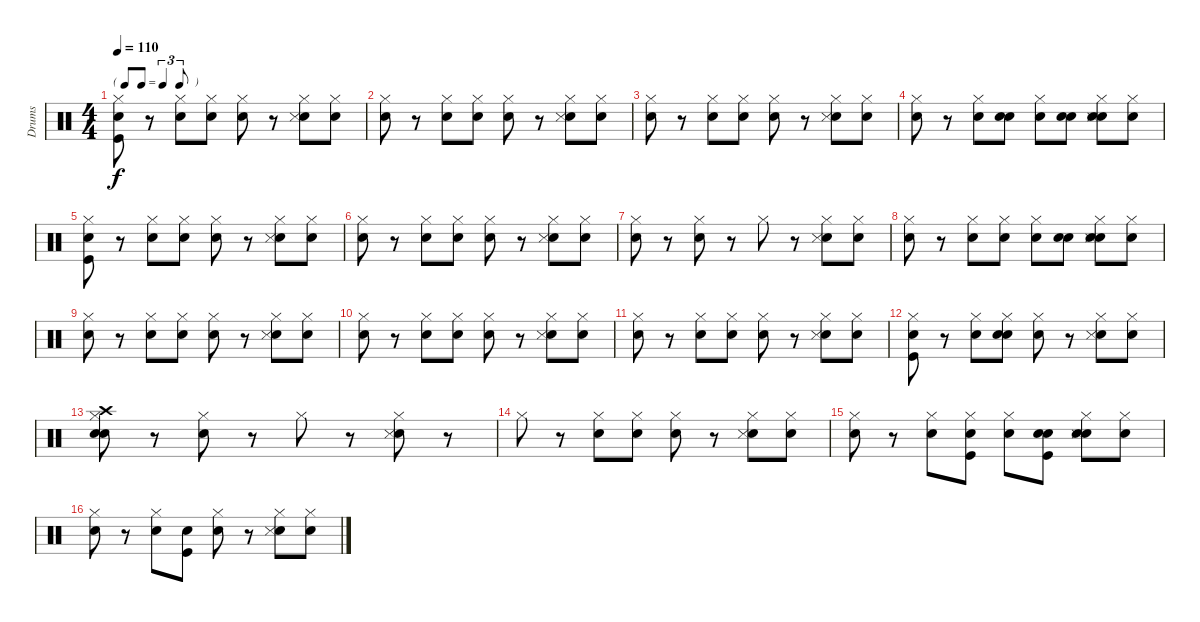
\track ("Drums " "Drums ") {instrument percussion}
\staff {score}
\articulation defaults
\ts (4 4)
\tf triplet8th
\tempo 110
\clef neutral
\ks c
("Snare (hit)" "Kick (hit)" "Hi-Hat (closed)").8{dy f} r.8 ("Snare (hit) 2" "Hi-Hat (closed)").8 ("Snare (hit)" "Hi-Hat (closed)").8 ("Snare (hit)" "Hi-Hat (closed)").8 r.8 ("Snare (hit) 2" "Hi-Hat (closed)" "Snare (side stick) 3").8 ("Snare (hit)" "Hi-Hat (closed)").8 |
("Snare (hit)" "Hi-Hat (closed)").8 r.8 ("Snare (hit) 2" "Hi-Hat (closed)").8 ("Snare (hit)" "Hi-Hat (closed)").8 ("Snare (hit)" "Hi-Hat (closed)").8 r.8 ("Snare (hit) 2" "Hi-Hat (closed)" "Snare (side stick) 3").8 ("Snare (hit)" "Hi-Hat (closed)").8 |
("Snare (hit)" "Hi-Hat (closed)").8 r.8 ("Snare (hit) 2" "Hi-Hat (closed)").8 ("Snare (hit)" "Hi-Hat (closed)").8 ("Snare (hit)" "Hi-Hat (closed)").8 r.8 ("Snare (hit) 2" "Hi-Hat (closed)" "Snare (side stick) 3").8 ("Snare (hit)" "Hi-Hat (closed)").8 |
("Snare (hit)" "Hi-Hat (closed)").8 r.8 ("Snare (hit) 2" "Hi-Hat (closed)").8 ("Snare (hit)" "Snare (hit) 2").8 ("Snare (hit)" "Hi-Hat (closed)").8 ("Snare (hit)" "Snare (hit) 2").8 ("Snare (hit)" "Snare (hit) 2" "Hi-Hat (closed)" "Snare (side stick) 3").8 ("Snare (hit)" "Hi-Hat (closed)").8 |
("Snare (hit)" "Kick (hit)" "Hi-Hat (closed)").8 r.8 ("Snare (hit) 2" "Hi-Hat (closed)").8 ("Snare (hit)" "Hi-Hat (closed)").8 ("Snare (hit)" "Hi-Hat (closed)").8 r.8 ("Snare (hit) 2" "Hi-Hat (closed)" "Snare (side stick) 3").8 ("Snare (hit)" "Hi-Hat (closed)").8 |
("Snare (hit)" "Hi-Hat (closed)").8 r.8 ("Snare (hit) 2" "Hi-Hat (closed)").8 ("Snare (hit)" "Hi-Hat (closed)").8 ("Snare (hit)" "Hi-Hat (closed)").8 r.8 ("Snare (hit) 2" "Hi-Hat (closed)" "Snare (side stick) 3").8 ("Snare (hit)" "Hi-Hat (closed)").8 |
("Snare (hit)" "Hi-Hat (closed)").8 r.8 ("Snare (hit) 2" "Hi-Hat (closed)").8 r.8 "Hi-Hat (closed)".8 r.8 ("Snare (hit) 2" "Hi-Hat (closed)" "Snare (side stick) 3").8 ("Snare (hit)" "Hi-Hat (closed)").8 |
("Snare (hit)" "Hi-Hat (closed)").8 r.8 ("Snare (hit) 2" "Hi-Hat (closed)").8 ("Snare (hit)" "Hi-Hat (closed)").8 ("Snare (hit)" "Hi-Hat (closed)").8 ("Snare (hit)" "Snare (hit) 2").8 ("Snare (hit)" "Snare (hit) 2" "Hi-Hat (closed)" "Snare (side stick) 3").8 ("Snare (hit)" "Hi-Hat (closed)").8 |
("Snare (hit)" "Hi-Hat (closed)").8 r.8 ("Snare (hit) 2" "Hi-Hat (closed)").8 ("Snare (hit)" "Hi-Hat (closed)").8 ("Snare (hit)" "Hi-Hat (closed)").8 r.8 ("Snare (hit) 2" "Hi-Hat (closed)" "Snare (side stick) 3").8 ("Snare (hit)" "Hi-Hat (closed)").8 |
("Snare (hit)" "Hi-Hat (closed)").8 r.8 ("Snare (hit) 2" "Hi-Hat (closed)").8 ("Snare (hit)" "Hi-Hat (closed)").8 ("Snare (hit)" "Hi-Hat (closed)").8 r.8 ("Snare (hit) 2" "Hi-Hat (closed)" "Snare (side stick) 3").8 ("Snare (hit)" "Hi-Hat (closed)").8 |
("Snare (hit)" "Hi-Hat (closed)").8 r.8 ("Snare (hit) 2" "Hi-Hat (closed)").8 ("Snare (hit)" "Hi-Hat (closed)").8 ("Snare (hit)" "Hi-Hat (closed)").8 r.8 ("Snare (hit) 2" "Hi-Hat (closed)" "Snare (side stick) 3").8 ("Snare (hit)" "Hi-Hat (closed)").8 |
("Snare (hit)" "Kick (hit)" "Hi-Hat (closed)").8 r.8 ("Snare (hit) 2" "Hi-Hat (closed)").8 ("Snare (hit)" "Snare (hit) 2" "Hi-Hat (closed)").8 ("Snare (hit)" "Hi-Hat (closed)").8 r.8 ("Snare (hit) 2" "Hi-Hat (closed)" "Snare (side stick) 3").8 ("Snare (hit)" "Hi-Hat (closed)").8 |
("Snare (hit)" "Snare (hit) 2" "Hi-Hat (closed)" "Crash high (hit)").8 r.8 ("Snare (hit) 2" "Hi-Hat (closed)").8 r.8 "Hi-Hat (closed)".8 r.8 ("Snare (hit) 2" "Hi-Hat (closed)" "Snare (side stick) 3").8 r.8 |
"Hi-Hat (closed)".8 r.8 ("Snare (hit) 2" "Hi-Hat (closed)").8 ("Snare (hit)" "Hi-Hat (closed)").8 ("Snare (hit)" "Hi-Hat (closed)").8 r.8 ("Snare (hit) 2" "Hi-Hat (closed)" "Snare (side stick) 3").8 ("Snare (hit)" "Hi-Hat (closed)").8 |
("Snare (hit)" "Hi-Hat (closed)").8 r.8 ("Snare (hit) 2" "Hi-Hat (closed)").8 ("Snare (hit)" "Kick (hit)" "Hi-Hat (closed)").8 ("Snare (hit)" "Hi-Hat (closed)").8 ("Snare (hit)" "Kick (hit)" "Snare (hit) 2").8 ("Snare (hit)" "Snare (hit) 2" "Hi-Hat (closed)" "Snare (side stick) 3").8 ("Snare (hit)" "Hi-Hat (closed)").8 |
("Snare (hit)" "Hi-Hat (closed)").8 r.8 ("Snare (hit) 2" "Hi-Hat (closed)").8 ("Snare (hit)" "Kick (hit)").8 ("Snare (hit)" "Hi-Hat (closed)").8 r.8 ("Snare (hit) 2" "Hi-Hat (closed)" "Snare (side stick) 3").8 ("Snare (hit)" "Hi-Hat (closed)").8
